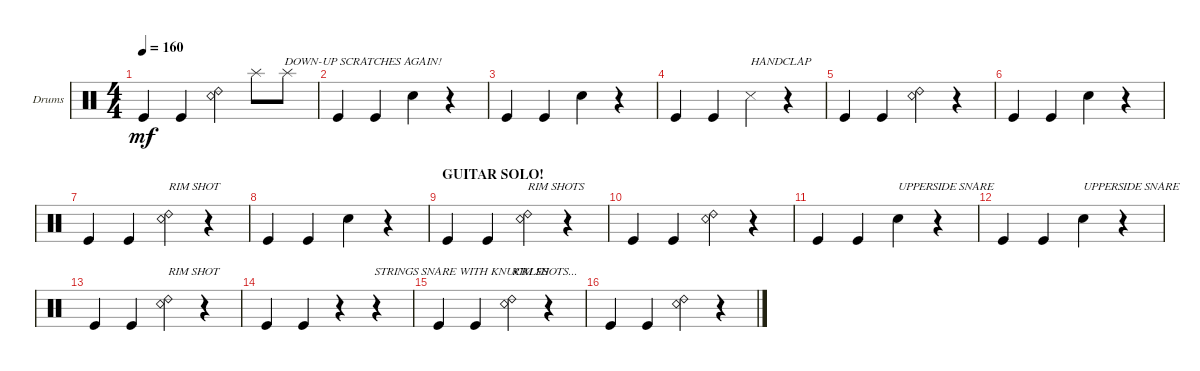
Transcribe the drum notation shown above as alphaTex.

\defaultSystemsLayout 4
\bracketExtendMode groupsimilarinstruments
\firstSystemTrackNameOrientation horizontal
\otherSystemsTrackNameOrientation horizontal
\track ("Drumkit" "Drums") {instrument percussion}
\staff {score}
\articulation defaults
\ts (4 4)
\tempo 160
\clef neutral
\ks c "Kick (hit)".4{dy mf} "Kick (hit)".4
("Snare (rim shot)" "Ride (bell) 2").4{txt "                      DOWN-UP SCRATCHES AGAIN!"} "Splash (hit)".8 "Splash (hit)".8 |
"Kick (hit)".4 "Kick (hit)".4 "Snare (hit) 2".4 r.4 |
"Kick (hit)".4 "Kick (hit)".4 "Snare (hit) 2".4 r.4 |
"Kick (hit)".4 "Kick (hit)".4 "Snare (side stick) 3".4{txt "HANDCLAP"} r.4 |
"Kick (hit)".4 "Kick (hit)".4 ("Snare (rim shot)" "Ride (bell) 2").4 r.4 |
"Kick (hit)".4 "Kick (hit)".4 "Snare (hit) 2".4 r.4 |
"Kick (hit)".4 "Kick (hit)".4 ("Snare (rim shot)" "Ride (bell) 2").4{txt "RIM SHOT"} r.4 |
"Kick (hit)".4 "Kick (hit)".4 "Snare (hit) 2".4 r.4 |
\section ("" "GUITAR SOLO!")
"Kick (hit)".4 "Kick (hit)".4 ("Snare (rim shot)" "Ride (bell) 2").4{txt "RIM SHOTS"} r.4 |
"Kick (hit)".4 "Kick (hit)".4 ("Snare (rim shot)" "Ride (bell) 2").4 r.4 |
"Kick (hit)".4 "Kick (hit)".4 "Snare (hit) 2".4{txt "UPPERSIDE SNARE"} r.4 |
"Kick (hit)".4 "Kick (hit)".4 "Snare (hit) 2".4{txt "UPPERSIDE SNARE"} r.4 |
"Kick (hit)".4 "Kick (hit)".4 ("Snare (rim shot)" "Ride (bell) 2").4{txt "RIM SHOT"} r.4 |
"Kick (hit)".4{txt "                                    STRINGS SNARE WITH KNUCKLES"} "Kick (hit)".4 r.4 r.4 |
"Kick (hit)".4 "Kick (hit)".4 ("Snare (rim shot)" "Ride (bell) 2").4{txt "RIM SHOTS..."} r.4 |
"Kick (hit)".4 "Kick (hit)".4 ("Snare (rim shot)" "Ride (bell) 2").4 r.4
